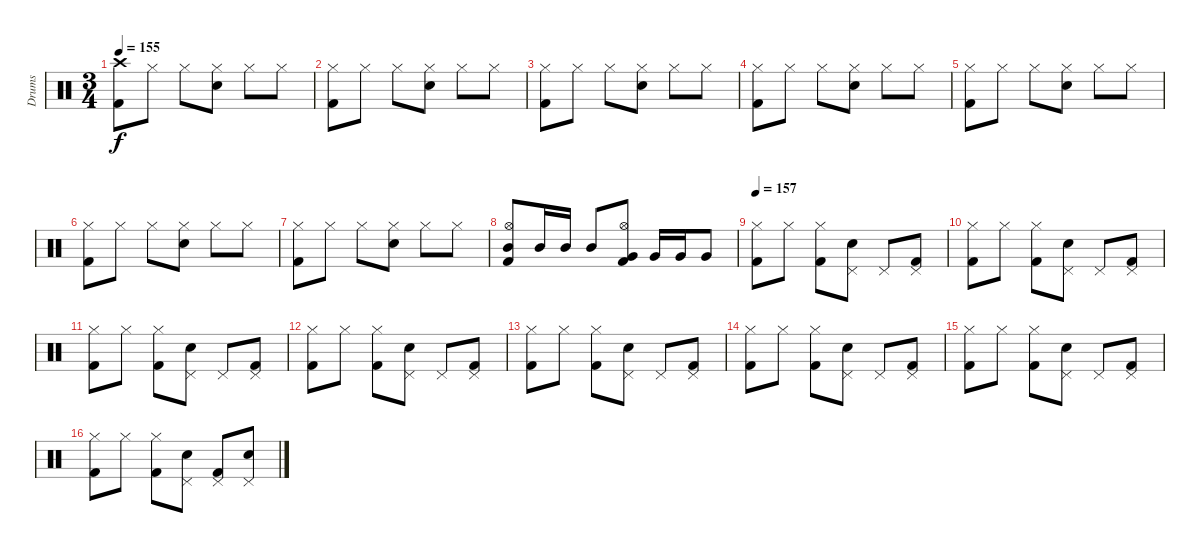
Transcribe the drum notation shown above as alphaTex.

\track ("Drums" "Drums") {instrument percussion}
\staff {score}
\articulation defaults
\ts (3 4)
\tempo 155
\clef neutral
\ks c
("Crash high (hit)" "Kick (hit) 2").8{dy f} "Hi-Hat (closed)".8 "Hi-Hat (closed)".8 ("Hi-Hat (closed)" "Electric Snare (hit)").8 "Hi-Hat (closed)".8 "Hi-Hat (closed)".8 |
("Hi-Hat (closed)" "Kick (hit) 2").8 "Hi-Hat (closed)".8 "Hi-Hat (closed)".8 ("Hi-Hat (closed)" "Electric Snare (hit)").8 "Hi-Hat (closed)".8 "Hi-Hat (closed)".8 |
("Hi-Hat (closed)" "Kick (hit) 2").8 "Hi-Hat (closed)".8 "Hi-Hat (closed)".8 ("Hi-Hat (closed)" "Electric Snare (hit)").8 "Hi-Hat (closed)".8 "Hi-Hat (closed)".8 |
("Hi-Hat (closed)" "Kick (hit) 2").8 "Hi-Hat (closed)".8 "Hi-Hat (closed)".8 ("Hi-Hat (closed)" "Electric Snare (hit)").8 "Hi-Hat (closed)".8 "Hi-Hat (closed)".8 |
("Hi-Hat (closed)" "Kick (hit) 2").8 "Hi-Hat (closed)".8 "Hi-Hat (closed)".8 ("Hi-Hat (closed)" "Electric Snare (hit)").8 "Hi-Hat (closed)".8 "Hi-Hat (closed)".8 |
("Hi-Hat (closed)" "Kick (hit) 2").8 "Hi-Hat (closed)".8 "Hi-Hat (closed)".8 ("Hi-Hat (closed)" "Electric Snare (hit)").8 "Hi-Hat (closed)".8 "Hi-Hat (closed)".8 |
("Hi-Hat (closed)" "Kick (hit) 2").8 "Hi-Hat (closed)".8 "Hi-Hat (closed)".8 ("Hi-Hat (closed)" "Electric Snare (hit)").8 "Hi-Hat (closed)".8 "Hi-Hat (closed)".8 |
("Hi-Hat (open)" "Mid Tom (hit)" "Kick (hit) 2").8 "Mid Tom (hit)".16 "Mid Tom (hit)".16 "Mid Tom (hit)".8 ("Hi-Hat (open)" "Very Low Tom (hit)" "Kick (hit) 2").8 "Very Low Tom (hit)".16 "Very Low Tom (hit)".16 "Very Low Tom (hit)".8 |
\tempo 155
\tempo 157
("Hi-Hat (closed)" "Kick (hit) 2").8 "Hi-Hat (closed)".8 ("Hi-Hat (closed)" "Kick (hit) 2").8 ("Pedal Hi-Hat (hit)" "Electric Snare (hit)").8 "Pedal Hi-Hat (hit)".8 ("Pedal Hi-Hat (hit)" "Kick (hit) 2").8 |
("Hi-Hat (closed)" "Kick (hit) 2").8 "Hi-Hat (closed)".8 ("Hi-Hat (closed)" "Kick (hit) 2").8 ("Pedal Hi-Hat (hit)" "Electric Snare (hit)").8 "Pedal Hi-Hat (hit)".8 ("Pedal Hi-Hat (hit)" "Kick (hit) 2").8 |
("Hi-Hat (closed)" "Kick (hit) 2").8 "Hi-Hat (closed)".8 ("Hi-Hat (closed)" "Kick (hit) 2").8 ("Pedal Hi-Hat (hit)" "Electric Snare (hit)").8 "Pedal Hi-Hat (hit)".8 ("Pedal Hi-Hat (hit)" "Kick (hit) 2").8 |
("Hi-Hat (closed)" "Kick (hit) 2").8 "Hi-Hat (closed)".8 ("Hi-Hat (closed)" "Kick (hit) 2").8 ("Pedal Hi-Hat (hit)" "Electric Snare (hit)").8 "Pedal Hi-Hat (hit)".8 ("Pedal Hi-Hat (hit)" "Kick (hit) 2").8 |
("Hi-Hat (closed)" "Kick (hit) 2").8 "Hi-Hat (closed)".8 ("Hi-Hat (closed)" "Kick (hit) 2").8 ("Pedal Hi-Hat (hit)" "Electric Snare (hit)").8 "Pedal Hi-Hat (hit)".8 ("Pedal Hi-Hat (hit)" "Kick (hit) 2").8 |
("Hi-Hat (closed)" "Kick (hit) 2").8 "Hi-Hat (closed)".8 ("Hi-Hat (closed)" "Kick (hit) 2").8 ("Pedal Hi-Hat (hit)" "Electric Snare (hit)").8 "Pedal Hi-Hat (hit)".8 ("Pedal Hi-Hat (hit)" "Kick (hit) 2").8 |
("Hi-Hat (closed)" "Kick (hit) 2").8 "Hi-Hat (closed)".8 ("Hi-Hat (closed)" "Kick (hit) 2").8 ("Pedal Hi-Hat (hit)" "Electric Snare (hit)").8 "Pedal Hi-Hat (hit)".8 ("Pedal Hi-Hat (hit)" "Kick (hit) 2").8 |
("Hi-Hat (closed)" "Kick (hit) 2").8 "Hi-Hat (closed)".8 ("Hi-Hat (closed)" "Kick (hit) 2").8 ("Pedal Hi-Hat (hit)" "Electric Snare (hit)").8 ("Pedal Hi-Hat (hit)" "Kick (hit) 2").8 ("Pedal Hi-Hat (hit)" "Electric Snare (hit)").8
